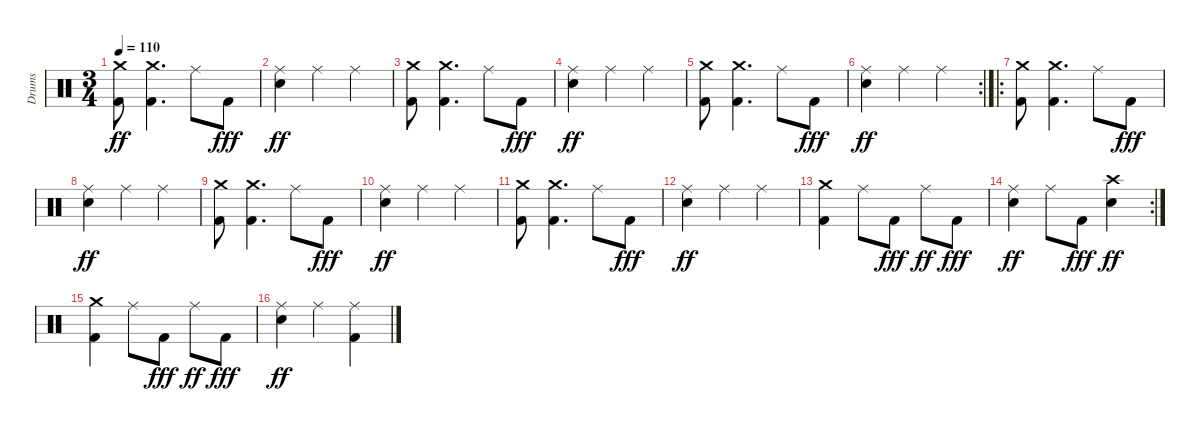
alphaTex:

\track ("Drums" "Drums") {instrument percussion}
\staff {score}
\articulation defaults
\ts (3 4)
\tempo 110
\clef neutral
\ks c
("Crash medium (hit)" "Kick (hit) 2").8{dy ff} ("Crash medium (hit)" "Kick (hit) 2").4{d} "Ride (middle)".8 "Kick (hit) 2".8{dy fff} |
("Ride (middle)" "Snare (hit) 2").4{dy ff} "Ride (middle)".4 "Ride (middle)".4 |
("Crash medium (hit)" "Kick (hit) 2").8 ("Crash medium (hit)" "Kick (hit) 2").4{d} "Ride (middle)".8 "Kick (hit) 2".8{dy fff} |
("Ride (middle)" "Snare (hit) 2").4{dy ff} "Ride (middle)".4 "Ride (middle)".4 |
("Crash medium (hit)" "Kick (hit) 2").8 ("Crash medium (hit)" "Kick (hit) 2").4{d} "Ride (middle)".8 "Kick (hit) 2".8{dy fff} |
\rc 2
("Ride (middle)" "Snare (hit) 2").4{dy ff} "Ride (middle)".4 "Ride (middle)".4 |
\ro
("Crash medium (hit)" "Kick (hit) 2").8 ("Crash medium (hit)" "Kick (hit) 2").4{d} "Ride (middle)".8 "Kick (hit) 2".8{dy fff} |
("Ride (middle)" "Snare (hit) 2").4{dy ff} "Ride (middle)".4 "Ride (middle)".4 |
("Crash medium (hit)" "Kick (hit) 2").8 ("Crash medium (hit)" "Kick (hit) 2").4{d} "Ride (middle)".8 "Kick (hit) 2".8{dy fff} |
("Ride (middle)" "Snare (hit) 2").4{dy ff} "Ride (middle)".4 "Ride (middle)".4 |
("Crash medium (hit)" "Kick (hit) 2").8 ("Crash medium (hit)" "Kick (hit) 2").4{d} "Ride (middle)".8 "Kick (hit) 2".8{dy fff} |
("Ride (middle)" "Snare (hit) 2").4{dy ff} "Ride (middle)".4 "Ride (middle)".4 |
("Crash medium (hit)" "Kick (hit) 2").4 "Ride (middle)".8 "Kick (hit) 2".8{dy fff} "Ride (middle)".8{dy ff} "Kick (hit) 2".8{dy fff} |
\rc 2
("Ride (middle)" "Snare (hit) 2").4{dy ff} "Ride (middle)".8 "Kick (hit) 2".8{dy fff} ("Crash high (hit)" "Snare (hit) 2").4{dy ff} |
("Crash medium (hit)" "Kick (hit) 2").4 "Ride (middle)".8 "Kick (hit) 2".8{dy fff} "Ride (middle)".8{dy ff} "Kick (hit) 2".8{dy fff} |
("Ride (middle)" "Snare (hit) 2").4{dy ff} "Ride (middle)".4 ("Ride (middle)" "Kick (hit) 2").4
